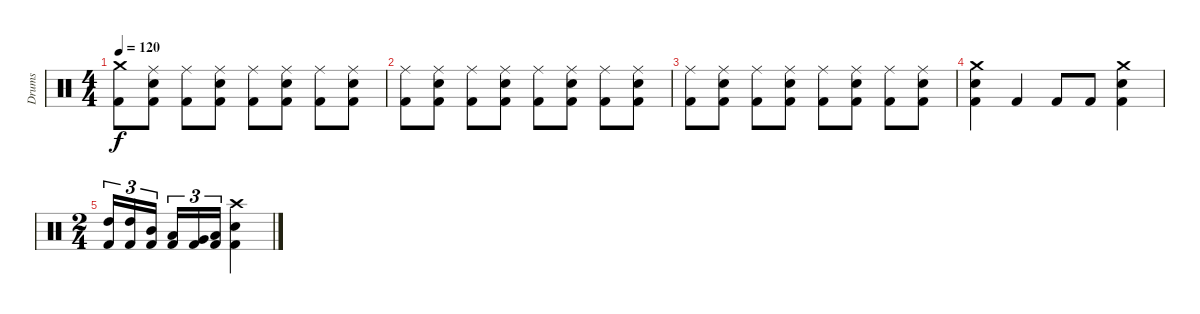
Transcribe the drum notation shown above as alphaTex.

\track ("Drums" "Drums") {instrument percussion}
\staff {score}
\articulation defaults
\ts (4 4)
\tempo 120
\clef neutral
\ks c
("Crash medium (hit)" "Kick (hit) 2").8{dy f} ("Ride (middle)" "Snare (hit) 2" "Kick (hit) 2").8 ("Ride (middle)" "Kick (hit) 2").8 ("Ride (middle)" "Snare (hit) 2" "Kick (hit) 2").8 ("Ride (middle)" "Kick (hit) 2").8 ("Ride (middle)" "Snare (hit) 2" "Kick (hit) 2").8 ("Ride (middle)" "Kick (hit) 2").8 ("Ride (middle)" "Snare (hit) 2" "Kick (hit) 2").8 |
("Ride (middle)" "Kick (hit) 2").8 ("Ride (middle)" "Snare (hit) 2" "Kick (hit) 2").8 ("Ride (middle)" "Kick (hit) 2").8 ("Ride (middle)" "Snare (hit) 2" "Kick (hit) 2").8 ("Ride (middle)" "Kick (hit) 2").8 ("Ride (middle)" "Snare (hit) 2" "Kick (hit) 2").8 ("Ride (middle)" "Kick (hit) 2").8 ("Ride (middle)" "Snare (hit) 2" "Kick (hit) 2").8 |
("Ride (middle)" "Kick (hit) 2").8 ("Ride (middle)" "Snare (hit) 2" "Kick (hit) 2").8 ("Ride (middle)" "Kick (hit) 2").8 ("Ride (middle)" "Snare (hit) 2" "Kick (hit) 2").8 ("Ride (middle)" "Kick (hit) 2").8 ("Ride (middle)" "Snare (hit) 2" "Kick (hit) 2").8 ("Ride (middle)" "Kick (hit) 2").8 ("Ride (middle)" "Snare (hit) 2" "Kick (hit) 2").8 |
("Crash medium (hit)" "Snare (hit) 2" "Kick (hit) 2").4 "Kick (hit) 2".4 "Kick (hit) 2".8 "Kick (hit) 2".8 ("Crash medium (hit)" "Snare (hit) 2" "Kick (hit) 2").4 |
\ts (2 4)
("High Tom (hit)" "Kick (hit) 2").16{tu (3 2)} ("High Tom (hit)" "Kick (hit) 2").16{tu (3 2)} ("Mid Tom (hit)" "Kick (hit) 2").16{tu (3 2)} ("Low Tom (hit)" "Kick (hit) 2").16{tu (3 2)} ("Very Low Tom (hit)" "Kick (hit) 2").16{tu (3 2)} ("Low Floor Tom (hit)" "Kick (hit) 2").16{tu (3 2)} ("Crash high (hit)" "Snare (hit) 2" "Kick (hit) 2").4
